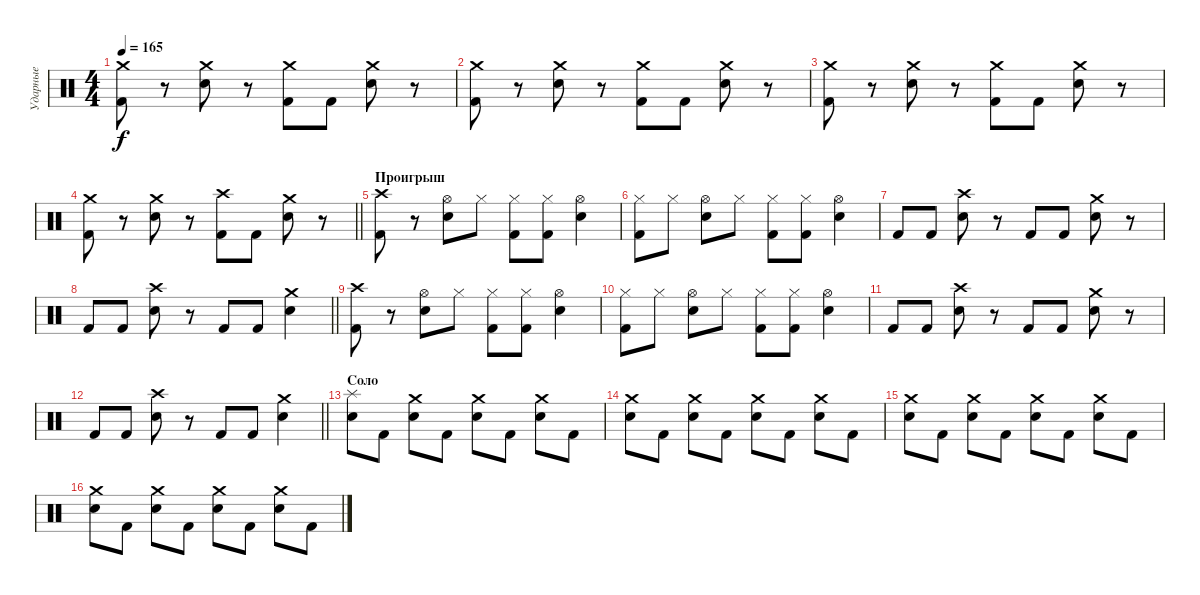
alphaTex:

\track ("Ударные" "Ударные") {instrument percussion}
\staff {score}
\articulation defaults
\ts (4 4)
\tempo 165
\clef neutral
\ks c
("Crash medium (hit)" "Kick (hit) 2").8{dy f} r.8 ("Crash medium (hit)" "Snare (hit) 2").8 r.8 ("Crash medium (hit)" "Kick (hit) 2").8 "Kick (hit) 2".8 ("Crash medium (hit)" "Snare (hit) 2").8 r.8 |
("Crash medium (hit)" "Kick (hit) 2").8 r.8 ("Crash medium (hit)" "Snare (hit) 2").8 r.8 ("Crash medium (hit)" "Kick (hit) 2").8 "Kick (hit) 2".8 ("Crash medium (hit)" "Snare (hit) 2").8 r.8 |
("Crash medium (hit)" "Kick (hit) 2").8 r.8 ("Crash medium (hit)" "Snare (hit) 2").8 r.8 ("Crash medium (hit)" "Kick (hit) 2").8 "Kick (hit) 2".8 ("Crash medium (hit)" "Snare (hit) 2").8 r.8 |
\barLineRight lightlight
("Crash medium (hit)" "Kick (hit) 2").8 r.8 ("Crash medium (hit)" "Snare (hit) 2").8 r.8 ("Crash high (hit)" "Kick (hit) 2").8 "Kick (hit) 2".8 ("Crash medium (hit)" "Snare (hit) 2").8 r.8 |
\section ("" "Проигрыш ")
("Crash high (hit)" "Kick (hit) 2").8 r.8 ("Hi-Hat (open)" "Snare (hit) 2").8 "Hi-Hat (closed)".8 ("Hi-Hat (closed)" "Kick (hit) 2").8 ("Hi-Hat (closed)" "Kick (hit) 2").8 ("Hi-Hat (open)" "Snare (hit) 2").4 |
("Hi-Hat (closed)" "Kick (hit) 2").8 "Hi-Hat (closed)".8 ("Hi-Hat (open)" "Snare (hit) 2").8 "Hi-Hat (closed)".8 ("Hi-Hat (closed)" "Kick (hit) 2").8 ("Hi-Hat (closed)" "Kick (hit) 2").8 ("Hi-Hat (open)" "Snare (hit) 2").4 |
"Kick (hit) 2".8 "Kick (hit) 2".8 ("Crash high (hit)" "Snare (hit) 2").8 r.8 "Kick (hit) 2".8 "Kick (hit) 2".8 ("Crash medium (hit)" "Snare (hit) 2").8 r.8 |
\barLineRight lightlight "Kick (hit) 2".8 "Kick (hit) 2".8
("Crash high (hit)" "Snare (hit) 2").8 r.8 "Kick (hit) 2".8 "Kick (hit) 2".8 ("Crash medium (hit)" "Snare (hit) 2").4 |
("Crash high (hit)" "Kick (hit) 2").8 r.8 ("Hi-Hat (open)" "Snare (hit) 2").8 "Hi-Hat (closed)".8 ("Hi-Hat (closed)" "Kick (hit) 2").8 ("Hi-Hat (closed)" "Kick (hit) 2").8 ("Hi-Hat (open)" "Snare (hit) 2").4 |
("Hi-Hat (closed)" "Kick (hit) 2").8 "Hi-Hat (closed)".8 ("Hi-Hat (open)" "Snare (hit) 2").8 "Hi-Hat (closed)".8 ("Hi-Hat (closed)" "Kick (hit) 2").8 ("Hi-Hat (closed)" "Kick (hit) 2").8 ("Hi-Hat (open)" "Snare (hit) 2").4 |
"Kick (hit) 2".8 "Kick (hit) 2".8 ("Crash high (hit)" "Snare (hit) 2").8 r.8 "Kick (hit) 2".8 "Kick (hit) 2".8 ("Crash medium (hit)" "Snare (hit) 2").8 r.8 |
\barLineRight lightlight "Kick (hit) 2".8 "Kick (hit) 2".8
("Crash high (hit)" "Snare (hit) 2").8 r.8 "Kick (hit) 2".8 "Kick (hit) 2".8 ("Crash medium (hit)" "Snare (hit) 2").4 |
\section ("" "Соло")
("Splash (hit)" "Snare (hit) 2").8 "Kick (hit) 2".8 ("Crash medium (hit)" "Snare (hit) 2").8 "Kick (hit) 2".8 ("Crash medium (hit)" "Snare (hit) 2").8 "Kick (hit) 2".8 ("Crash medium (hit)" "Snare (hit) 2").8 "Kick (hit) 2".8 |
("Crash medium (hit)" "Snare (hit) 2").8 "Kick (hit) 2".8 ("Crash medium (hit)" "Snare (hit) 2").8 "Kick (hit) 2".8 ("Crash medium (hit)" "Snare (hit) 2").8 "Kick (hit) 2".8 ("Crash medium (hit)" "Snare (hit) 2").8 "Kick (hit) 2".8 |
("Crash medium (hit)" "Snare (hit) 2").8 "Kick (hit) 2".8 ("Crash medium (hit)" "Snare (hit) 2").8 "Kick (hit) 2".8 ("Crash medium (hit)" "Snare (hit) 2").8 "Kick (hit) 2".8 ("Crash medium (hit)" "Snare (hit) 2").8 "Kick (hit) 2".8 |
("Crash medium (hit)" "Snare (hit) 2").8 "Kick (hit) 2".8 ("Crash medium (hit)" "Snare (hit) 2").8 "Kick (hit) 2".8 ("Crash medium (hit)" "Snare (hit) 2").8 "Kick (hit) 2".8 ("Crash medium (hit)" "Snare (hit) 2").8 "Kick (hit) 2".8
